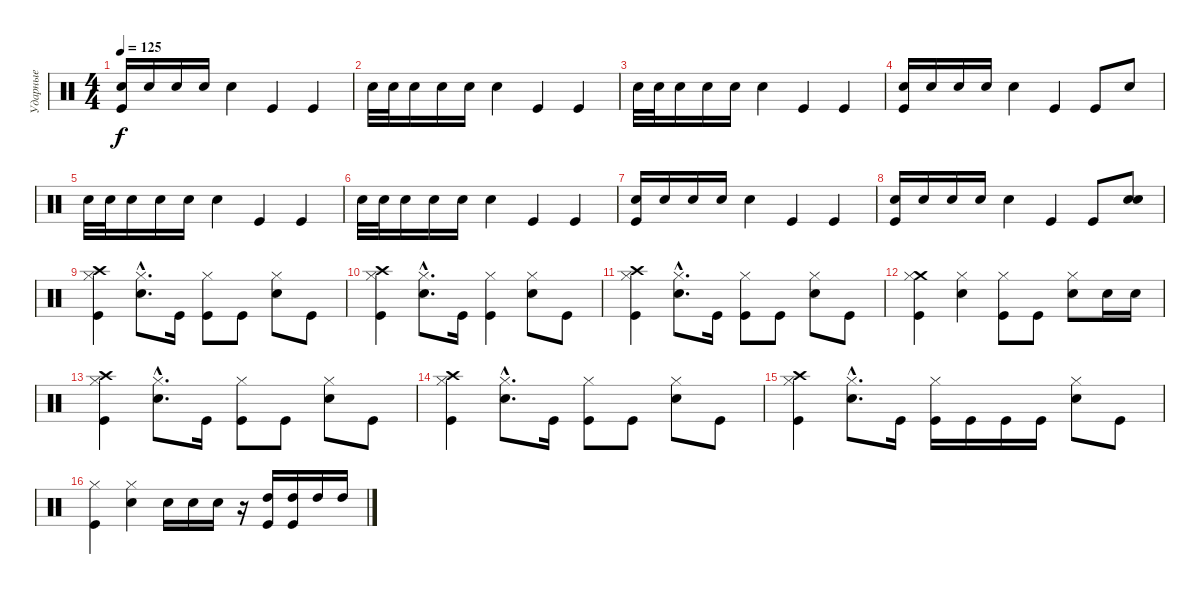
\track ("Ударные" "Ударные") {instrument percussion}
\staff {score}
\articulation defaults
\ts (4 4)
\tempo 125
\clef neutral
\ks c
("Electric Snare (hit)" "Kick (hit)").16{dy f} "Electric Snare (hit)".16 "Electric Snare (hit)".16 "Electric Snare (hit)".16 "Electric Snare (hit)".4 "Kick (hit)".4 "Kick (hit)".4 |
"Electric Snare (hit)".32 "Electric Snare (hit)".32 "Electric Snare (hit)".16 "Electric Snare (hit)".16 "Electric Snare (hit)".16 "Electric Snare (hit)".4 "Kick (hit)".4 "Kick (hit)".4 |
"Electric Snare (hit)".32 "Electric Snare (hit)".32 "Electric Snare (hit)".16 "Electric Snare (hit)".16 "Electric Snare (hit)".16 "Electric Snare (hit)".4 "Kick (hit)".4 "Kick (hit)".4 |
("Electric Snare (hit)" "Kick (hit)").16 "Electric Snare (hit)".16 "Electric Snare (hit)".16 "Electric Snare (hit)".16 "Electric Snare (hit)".4 "Kick (hit)".4 "Kick (hit)".8 "Electric Snare (hit)".8 |
"Electric Snare (hit)".32 "Electric Snare (hit)".32 "Electric Snare (hit)".16 "Electric Snare (hit)".16 "Electric Snare (hit)".16 "Electric Snare (hit)".4 "Kick (hit)".4 "Kick (hit)".4 |
"Electric Snare (hit)".32 "Electric Snare (hit)".32 "Electric Snare (hit)".16 "Electric Snare (hit)".16 "Electric Snare (hit)".16 "Electric Snare (hit)".4 "Kick (hit)".4 "Kick (hit)".4 |
("Electric Snare (hit)" "Kick (hit)").16 "Electric Snare (hit)".16 "Electric Snare (hit)".16 "Electric Snare (hit)".16 "Electric Snare (hit)".4 "Kick (hit)".4 "Kick (hit)".4 |
("Electric Snare (hit)" "Kick (hit)").16 "Electric Snare (hit)".16 "Electric Snare (hit)".16 "Electric Snare (hit)".16 "Electric Snare (hit)".4 "Kick (hit)".4 "Kick (hit)".8 ("Electric Snare (hit)" "Electric Snare (hit)").8 |
("Crash high (hit)" "Hi-Hat (closed)" "Kick (hit)").4 ("Hi-Hat (closed)"{hac} "Electric Snare (hit)"{hac}).8{d} "Kick (hit)".16 ("Hi-Hat (closed)" "Kick (hit)").8 "Kick (hit)".8 ("Hi-Hat (closed)" "Electric Snare (hit)").8 "Kick (hit)".8 |
("Crash high (hit)" "Hi-Hat (closed)" "Kick (hit)").4 ("Hi-Hat (closed)"{hac} "Electric Snare (hit)"{hac}).8{d} "Kick (hit)".16 ("Hi-Hat (closed)" "Kick (hit)").4 ("Hi-Hat (closed)" "Electric Snare (hit)").8 "Kick (hit)".8 |
("Crash high (hit)" "Hi-Hat (closed)" "Kick (hit)").4 ("Hi-Hat (closed)"{hac} "Electric Snare (hit)"{hac}).8{d} "Kick (hit)".16 ("Hi-Hat (closed)" "Kick (hit)").8 "Kick (hit)".8 ("Hi-Hat (closed)" "Electric Snare (hit)").8 "Kick (hit)".8 |
("Crash medium (hit)" "Hi-Hat (closed)" "Kick (hit)").4 ("Hi-Hat (closed)" "Electric Snare (hit)").4 ("Hi-Hat (closed)" "Kick (hit)").8 "Kick (hit)".8 ("Hi-Hat (closed)" "Electric Snare (hit)").8 "Electric Snare (hit)".16 "Electric Snare (hit)".16 |
("Crash high (hit)" "Hi-Hat (closed)" "Kick (hit)").4 ("Hi-Hat (closed)"{hac} "Electric Snare (hit)"{hac}).8{d} "Kick (hit)".16 ("Hi-Hat (closed)" "Kick (hit)").8 "Kick (hit)".8 ("Hi-Hat (closed)" "Electric Snare (hit)").8 "Kick (hit)".8 |
("Crash high (hit)" "Hi-Hat (closed)" "Kick (hit)").4 ("Hi-Hat (closed)"{hac} "Electric Snare (hit)"{hac}).8{d} "Kick (hit)".16 ("Hi-Hat (closed)" "Kick (hit)").8 "Kick (hit)".8 ("Hi-Hat (closed)" "Electric Snare (hit)").8 "Kick (hit)".8 |
("Crash high (hit)" "Hi-Hat (closed)" "Kick (hit)").4 ("Hi-Hat (closed)"{hac} "Electric Snare (hit)"{hac}).8{d} "Kick (hit)".16 ("Hi-Hat (closed)" "Kick (hit)").16 "Kick (hit)".16 "Kick (hit)".16 "Kick (hit)".16 ("Hi-Hat (closed)" "Electric Snare (hit)").8 "Kick (hit)".8 |
("Hi-Hat (closed)" "Kick (hit)").4 ("Hi-Hat (closed)" "Electric Snare (hit)").4 "Electric Snare (hit)".16 "Electric Snare (hit)".16 "Electric Snare (hit)".16 r.16 ("High Tom (hit)" "Kick (hit)").16 ("High Tom (hit)" "Kick (hit)").16 "High Tom (hit)".16 "High Tom (hit)".16
